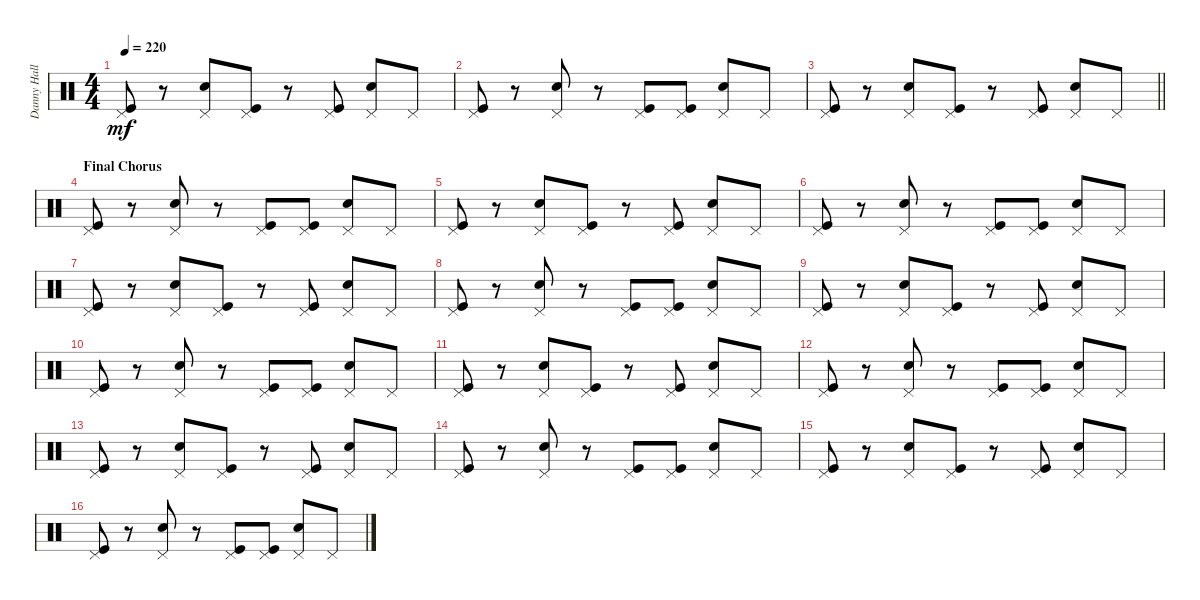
\track ("Danny Hall" "Danny Hall") {instrument percussion}
\staff {score}
\articulation defaults
\ts (4 4)
\tempo 220
\clef neutral
\ks c
("Pedal Hi-Hat (hit)" "Kick (hit)").8{dy mf} r.8 ("Pedal Hi-Hat (hit)" "Snare (hit) 2").8 ("Pedal Hi-Hat (hit)" "Kick (hit)").8 r.8 ("Pedal Hi-Hat (hit)" "Kick (hit)").8 ("Pedal Hi-Hat (hit)" "Snare (hit) 2").8 "Pedal Hi-Hat (hit)".8 |
("Pedal Hi-Hat (hit)" "Kick (hit)").8 r.8 ("Pedal Hi-Hat (hit)" "Snare (hit) 2").8 r.8 ("Pedal Hi-Hat (hit)" "Kick (hit)").8 ("Pedal Hi-Hat (hit)" "Kick (hit)").8 ("Pedal Hi-Hat (hit)" "Snare (hit) 2").8 "Pedal Hi-Hat (hit)".8 |
\barLineRight lightlight
("Pedal Hi-Hat (hit)" "Kick (hit)").8 r.8 ("Pedal Hi-Hat (hit)" "Snare (hit) 2").8 ("Pedal Hi-Hat (hit)" "Kick (hit)").8 r.8 ("Pedal Hi-Hat (hit)" "Kick (hit)").8 ("Pedal Hi-Hat (hit)" "Snare (hit) 2").8 "Pedal Hi-Hat (hit)".8 |
\section ("" "Final Chorus")
("Pedal Hi-Hat (hit)" "Kick (hit)").8 r.8 ("Pedal Hi-Hat (hit)" "Snare (hit) 2").8 r.8 ("Pedal Hi-Hat (hit)" "Kick (hit)").8 ("Pedal Hi-Hat (hit)" "Kick (hit)").8 ("Pedal Hi-Hat (hit)" "Snare (hit) 2").8 "Pedal Hi-Hat (hit)".8 |
("Pedal Hi-Hat (hit)" "Kick (hit)").8 r.8 ("Pedal Hi-Hat (hit)" "Snare (hit) 2").8 ("Pedal Hi-Hat (hit)" "Kick (hit)").8 r.8 ("Pedal Hi-Hat (hit)" "Kick (hit)").8 ("Pedal Hi-Hat (hit)" "Snare (hit) 2").8 "Pedal Hi-Hat (hit)".8 |
("Pedal Hi-Hat (hit)" "Kick (hit)").8 r.8 ("Pedal Hi-Hat (hit)" "Snare (hit) 2").8 r.8 ("Pedal Hi-Hat (hit)" "Kick (hit)").8 ("Pedal Hi-Hat (hit)" "Kick (hit)").8 ("Pedal Hi-Hat (hit)" "Snare (hit) 2").8 "Pedal Hi-Hat (hit)".8 |
("Pedal Hi-Hat (hit)" "Kick (hit)").8 r.8 ("Pedal Hi-Hat (hit)" "Snare (hit) 2").8 ("Pedal Hi-Hat (hit)" "Kick (hit)").8 r.8 ("Pedal Hi-Hat (hit)" "Kick (hit)").8 ("Pedal Hi-Hat (hit)" "Snare (hit) 2").8 "Pedal Hi-Hat (hit)".8 |
("Pedal Hi-Hat (hit)" "Kick (hit)").8 r.8 ("Pedal Hi-Hat (hit)" "Snare (hit) 2").8 r.8 ("Pedal Hi-Hat (hit)" "Kick (hit)").8 ("Pedal Hi-Hat (hit)" "Kick (hit)").8 ("Pedal Hi-Hat (hit)" "Snare (hit) 2").8 "Pedal Hi-Hat (hit)".8 |
("Pedal Hi-Hat (hit)" "Kick (hit)").8 r.8 ("Pedal Hi-Hat (hit)" "Snare (hit) 2").8 ("Pedal Hi-Hat (hit)" "Kick (hit)").8 r.8 ("Pedal Hi-Hat (hit)" "Kick (hit)").8 ("Pedal Hi-Hat (hit)" "Snare (hit) 2").8 "Pedal Hi-Hat (hit)".8 |
("Pedal Hi-Hat (hit)" "Kick (hit)").8 r.8 ("Pedal Hi-Hat (hit)" "Snare (hit) 2").8 r.8 ("Pedal Hi-Hat (hit)" "Kick (hit)").8 ("Pedal Hi-Hat (hit)" "Kick (hit)").8 ("Pedal Hi-Hat (hit)" "Snare (hit) 2").8 "Pedal Hi-Hat (hit)".8 |
("Pedal Hi-Hat (hit)" "Kick (hit)").8 r.8 ("Pedal Hi-Hat (hit)" "Snare (hit) 2").8 ("Pedal Hi-Hat (hit)" "Kick (hit)").8 r.8 ("Pedal Hi-Hat (hit)" "Kick (hit)").8 ("Pedal Hi-Hat (hit)" "Snare (hit) 2").8 "Pedal Hi-Hat (hit)".8 |
("Pedal Hi-Hat (hit)" "Kick (hit)").8 r.8 ("Pedal Hi-Hat (hit)" "Snare (hit) 2").8 r.8 ("Pedal Hi-Hat (hit)" "Kick (hit)").8 ("Pedal Hi-Hat (hit)" "Kick (hit)").8 ("Pedal Hi-Hat (hit)" "Snare (hit) 2").8 "Pedal Hi-Hat (hit)".8 |
("Pedal Hi-Hat (hit)" "Kick (hit)").8 r.8 ("Pedal Hi-Hat (hit)" "Snare (hit) 2").8 ("Pedal Hi-Hat (hit)" "Kick (hit)").8 r.8 ("Pedal Hi-Hat (hit)" "Kick (hit)").8 ("Pedal Hi-Hat (hit)" "Snare (hit) 2").8 "Pedal Hi-Hat (hit)".8 |
("Pedal Hi-Hat (hit)" "Kick (hit)").8 r.8 ("Pedal Hi-Hat (hit)" "Snare (hit) 2").8 r.8 ("Pedal Hi-Hat (hit)" "Kick (hit)").8 ("Pedal Hi-Hat (hit)" "Kick (hit)").8 ("Pedal Hi-Hat (hit)" "Snare (hit) 2").8 "Pedal Hi-Hat (hit)".8 |
("Pedal Hi-Hat (hit)" "Kick (hit)").8 r.8 ("Pedal Hi-Hat (hit)" "Snare (hit) 2").8 ("Pedal Hi-Hat (hit)" "Kick (hit)").8 r.8 ("Pedal Hi-Hat (hit)" "Kick (hit)").8 ("Pedal Hi-Hat (hit)" "Snare (hit) 2").8 "Pedal Hi-Hat (hit)".8 |
("Pedal Hi-Hat (hit)" "Kick (hit)").8 r.8 ("Pedal Hi-Hat (hit)" "Snare (hit) 2").8 r.8 ("Pedal Hi-Hat (hit)" "Kick (hit)").8 ("Pedal Hi-Hat (hit)" "Kick (hit)").8 ("Pedal Hi-Hat (hit)" "Snare (hit) 2").8 "Pedal Hi-Hat (hit)".8
